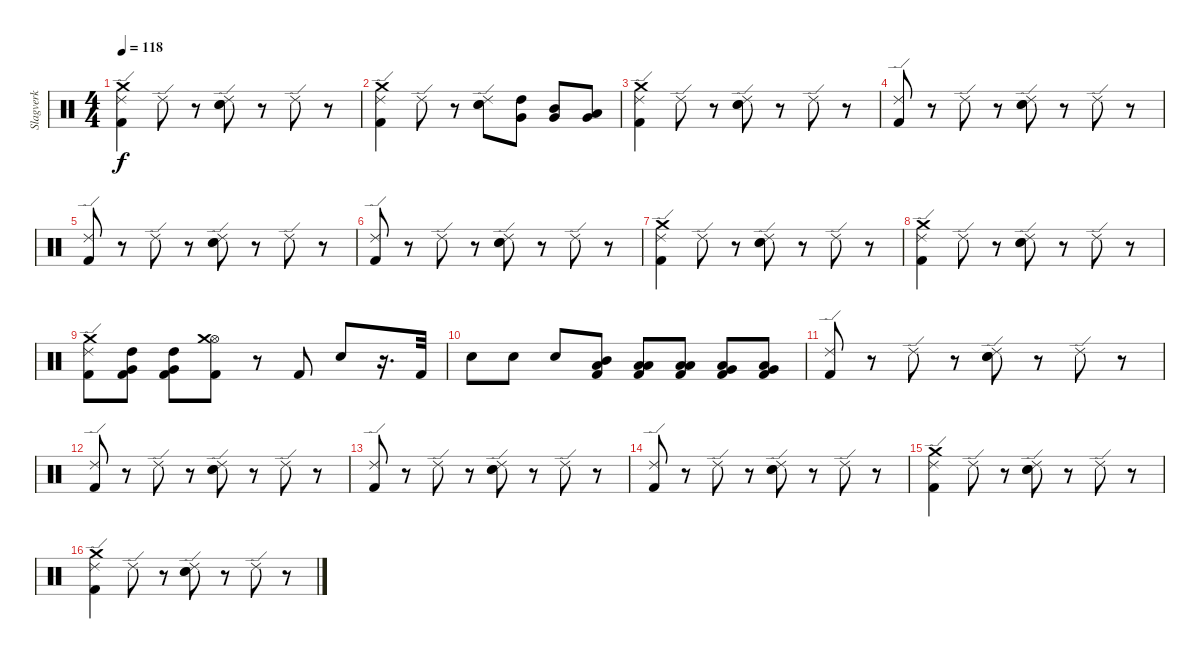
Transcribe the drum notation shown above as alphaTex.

\track ("Slagverk" "Slagverk") {instrument percussion}
\staff {score}
\articulation defaults
\ts (4 4)
\tempo 118
\clef neutral
\ks c
("Crash medium (hit)" "Kick (hit) 2" "Ride (edge) 2").4{dy f} "Ride (edge) 2".8 r.8 ("Electric Snare (hit)" "Snare (hit) 2" "Ride (edge) 2").8 r.8 "Ride (edge) 2".8 r.8 |
("Crash medium (hit)" "Kick (hit) 2" "Ride (edge) 2").4 "Ride (edge) 2".8 r.8 ("Electric Snare (hit)" "Snare (hit) 2" "Ride (edge) 2").8 ("Very Low Tom (hit)" "High Tom (hit)").8 ("Mid Tom (hit)" "Very Low Tom (hit)").8 ("Low Tom (hit)" "Very Low Tom (hit)").8 |
("Crash medium (hit)" "Kick (hit) 2" "Ride (edge) 2").4 "Ride (edge) 2".8 r.8 ("Electric Snare (hit)" "Snare (hit) 2" "Ride (edge) 2").8 r.8 "Ride (edge) 2".8 r.8 |
("Kick (hit) 2" "Ride (edge) 2").8 r.8 "Ride (edge) 2".8 r.8 ("Electric Snare (hit)" "Snare (hit) 2" "Ride (edge) 2").8 r.8 "Ride (edge) 2".8 r.8 |
("Kick (hit) 2" "Ride (edge) 2").8 r.8 "Ride (edge) 2".8 r.8 ("Electric Snare (hit)" "Snare (hit) 2" "Ride (edge) 2").8 r.8 "Ride (edge) 2".8 r.8 |
("Kick (hit) 2" "Ride (edge) 2").8 r.8 "Ride (edge) 2".8 r.8 ("Electric Snare (hit)" "Snare (hit) 2" "Ride (edge) 2").8 r.8 "Ride (edge) 2".8 r.8 |
("Crash medium (hit)" "Kick (hit) 2" "Ride (edge) 2").4 "Ride (edge) 2".8 r.8 ("Electric Snare (hit)" "Snare (hit) 2" "Ride (edge) 2").8 r.8 "Ride (edge) 2".8 r.8 |
("Crash medium (hit)" "Kick (hit) 2" "Ride (edge) 2").4 "Ride (edge) 2".8 r.8 ("Electric Snare (hit)" "Snare (hit) 2" "Ride (edge) 2").8 r.8 "Ride (edge) 2".8 r.8 |
("Crash medium (hit)" "Kick (hit) 2" "Ride (edge) 2").8 ("Very Low Tom (hit)" "High Tom (hit)" "Kick (hit) 2").8 ("Very Low Tom (hit)" "High Tom (hit)" "Kick (hit) 2").8 ("Hi-Hat (open)" "Crash medium (hit)" "Kick (hit) 2").8 r.8 "Kick (hit) 2".8 "Snare (hit) 2".8 r.16{d} "Kick (hit) 2".32 |
"Snare (hit) 2".8 "Snare (hit) 2".8 "Snare (hit) 2".8 ("Low Floor Tom (hit)" "Mid Tom (hit)" "Kick (hit) 2").8 ("Low Floor Tom (hit)" "Low Tom (hit)" "Kick (hit) 2").8 ("Low Floor Tom (hit)" "Low Tom (hit)" "Kick (hit) 2").8 ("Low Floor Tom (hit)" "Very Low Tom (hit)" "Kick (hit) 2").8 ("Low Floor Tom (hit)" "Very Low Tom (hit)" "Kick (hit) 2").8 |
("Kick (hit) 2" "Ride (edge) 2").8 r.8 "Ride (edge) 2".8 r.8 ("Electric Snare (hit)" "Snare (hit) 2" "Ride (edge) 2").8 r.8 "Ride (edge) 2".8 r.8 |
("Kick (hit) 2" "Ride (edge) 2").8 r.8 "Ride (edge) 2".8 r.8 ("Electric Snare (hit)" "Snare (hit) 2" "Ride (edge) 2").8 r.8 "Ride (edge) 2".8 r.8 |
("Kick (hit) 2" "Ride (edge) 2").8 r.8 "Ride (edge) 2".8 r.8 ("Electric Snare (hit)" "Snare (hit) 2" "Ride (edge) 2").8 r.8 "Ride (edge) 2".8 r.8 |
("Kick (hit) 2" "Ride (edge) 2").8 r.8 "Ride (edge) 2".8 r.8 ("Electric Snare (hit)" "Snare (hit) 2" "Ride (edge) 2").8 r.8 "Ride (edge) 2".8 r.8 |
("Crash medium (hit)" "Kick (hit) 2" "Ride (edge) 2").4 "Ride (edge) 2".8 r.8 ("Electric Snare (hit)" "Snare (hit) 2" "Ride (edge) 2").8 r.8 "Ride (edge) 2".8 r.8 |
("Crash medium (hit)" "Kick (hit) 2" "Ride (edge) 2").4 "Ride (edge) 2".8 r.8 ("Electric Snare (hit)" "Snare (hit) 2" "Ride (edge) 2").8 r.8 "Ride (edge) 2".8 r.8
